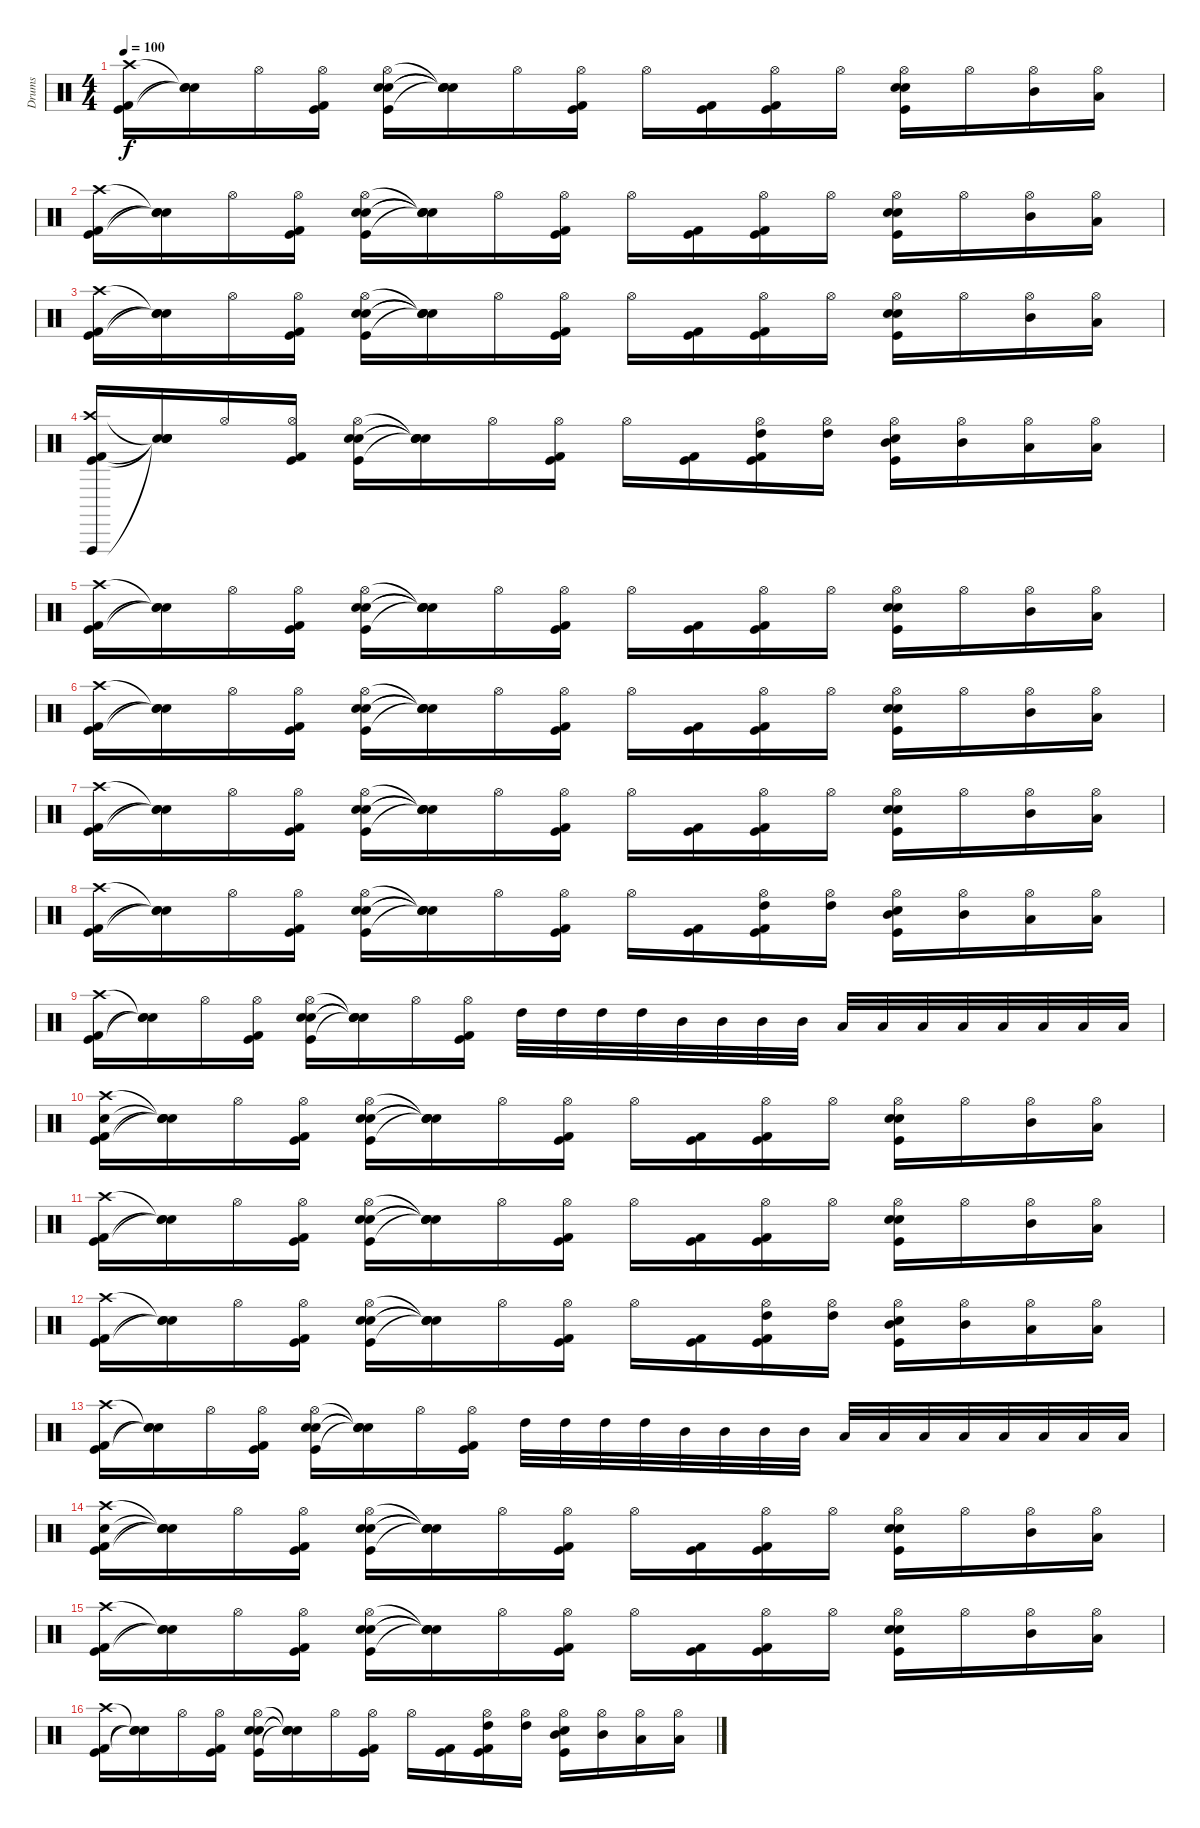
\track ("Drums" "Drums") {instrument percussion}
\staff {score}
\articulation defaults
\ts (4 4)
\tempo 100
\clef neutral
\ks c
("Kick (hit) 2" "Kick (hit)" "Crash high (hit)").16{dy f} ("Snare (hit)"{t} "Snare (hit)"{t} "Snare (hit)"{t}).16 "Hi-Hat (open)".16 ("Kick (hit)" "Kick (hit) 2" "Hi-Hat (open)").16 ("Snare (hit) 2" "Kick (hit)" "Electric Snare (hit)" "Hi-Hat (open)").16 ("Snare (hit)"{t} "Snare (hit)"{t} "Snare (hit)"{t} "Snare (hit)"{t}).16 "Hi-Hat (open)".16 ("Kick (hit)" "Kick (hit) 2" "Hi-Hat (open)").16 "Hi-Hat (open)".16 ("Kick (hit)" "Kick (hit) 2").16 ("Kick (hit)" "Kick (hit) 2" "Hi-Hat (open)").16 "Hi-Hat (open)".16 ("Snare (hit) 2" "Kick (hit)" "Electric Snare (hit)" "Hi-Hat (open)").16 "Hi-Hat (open)".16 ("Mid Tom (hit)" "Hi-Hat (open)").16 ("Low Tom (hit)" "Hi-Hat (open)").16 |
("Kick (hit) 2" "Kick (hit)" "Crash high (hit)").16 ("Snare (hit)"{t} "Snare (hit)"{t} "Snare (hit)"{t}).16 "Hi-Hat (open)".16 ("Kick (hit)" "Kick (hit) 2" "Hi-Hat (open)").16 ("Snare (hit) 2" "Kick (hit)" "Electric Snare (hit)" "Hi-Hat (open)").16 ("Snare (hit)"{t} "Snare (hit)"{t} "Snare (hit)"{t} "Snare (hit)"{t}).16 "Hi-Hat (open)".16 ("Kick (hit)" "Kick (hit) 2" "Hi-Hat (open)").16 "Hi-Hat (open)".16 ("Kick (hit)" "Kick (hit) 2").16 ("Kick (hit)" "Kick (hit) 2" "Hi-Hat (open)").16 "Hi-Hat (open)".16 ("Snare (hit) 2" "Kick (hit)" "Electric Snare (hit)" "Hi-Hat (open)").16 "Hi-Hat (open)".16 ("Mid Tom (hit)" "Hi-Hat (open)").16 ("Low Tom (hit)" "Hi-Hat (open)").16 |
("Kick (hit) 2" "Kick (hit)" "Crash high (hit)").16 ("Snare (hit)"{t} "Snare (hit)"{t} "Snare (hit)"{t}).16 "Hi-Hat (open)".16 ("Kick (hit)" "Kick (hit) 2" "Hi-Hat (open)").16 ("Snare (hit) 2" "Kick (hit)" "Electric Snare (hit)" "Hi-Hat (open)").16 ("Snare (hit)"{t} "Snare (hit)"{t} "Snare (hit)"{t} "Snare (hit)"{t}).16 "Hi-Hat (open)".16 ("Kick (hit)" "Kick (hit) 2" "Hi-Hat (open)").16 "Hi-Hat (open)".16 ("Kick (hit)" "Kick (hit) 2").16 ("Kick (hit)" "Kick (hit) 2" "Hi-Hat (open)").16 "Hi-Hat (open)".16 ("Snare (hit) 2" "Kick (hit)" "Electric Snare (hit)" "Hi-Hat (open)").16 "Hi-Hat (open)".16 ("Mid Tom (hit)" "Hi-Hat (open)").16 ("Low Tom (hit)" "Hi-Hat (open)").16 |
("Kick (hit) 2" "Kick (hit)" "Vibraslap (hit)" "Crash high (hit)").16 ("Snare (hit)"{t} "Snare (hit)"{t} "Snare (hit)"{t} "Snare (hit)"{t}).16 "Hi-Hat (open)".16 ("Kick (hit)" "Kick (hit) 2" "Hi-Hat (open)").16 ("Snare (hit) 2" "Kick (hit)" "Electric Snare (hit)" "Hi-Hat (open)").16 ("Snare (hit)"{t} "Snare (hit)"{t} "Snare (hit)"{t} "Snare (hit)"{t}).16 "Hi-Hat (open)".16 ("Kick (hit)" "Kick (hit) 2" "Hi-Hat (open)").16 "Hi-Hat (open)".16 ("Kick (hit)" "Kick (hit) 2").16 ("High Tom (hit)" "Kick (hit)" "Kick (hit) 2" "Hi-Hat (open)").16 ("High Tom (hit)" "Hi-Hat (open)").16 ("Mid Tom (hit)" "Kick (hit)" "Electric Snare (hit)" "Hi-Hat (open)").16 ("Mid Tom (hit)" "Hi-Hat (open)").16 ("Low Tom (hit)" "Hi-Hat (open)").16 ("Low Floor Tom (hit)" "Hi-Hat (open)").16 |
("Kick (hit) 2" "Kick (hit)" "Crash high (hit)").16 ("Snare (hit)"{t} "Snare (hit)"{t} "Snare (hit)"{t}).16 "Hi-Hat (open)".16 ("Kick (hit)" "Kick (hit) 2" "Hi-Hat (open)").16 ("Snare (hit) 2" "Kick (hit)" "Electric Snare (hit)" "Hi-Hat (open)").16 ("Snare (hit)"{t} "Snare (hit)"{t} "Snare (hit)"{t} "Snare (hit)"{t}).16 "Hi-Hat (open)".16 ("Kick (hit)" "Kick (hit) 2" "Hi-Hat (open)").16 "Hi-Hat (open)".16 ("Kick (hit)" "Kick (hit) 2").16 ("Kick (hit)" "Kick (hit) 2" "Hi-Hat (open)").16 "Hi-Hat (open)".16 ("Snare (hit) 2" "Kick (hit)" "Electric Snare (hit)" "Hi-Hat (open)").16 "Hi-Hat (open)".16 ("Mid Tom (hit)" "Hi-Hat (open)").16 ("Low Tom (hit)" "Hi-Hat (open)").16 |
("Kick (hit) 2" "Kick (hit)" "Crash high (hit)").16 ("Snare (hit)"{t} "Snare (hit)"{t} "Snare (hit)"{t}).16 "Hi-Hat (open)".16 ("Kick (hit)" "Kick (hit) 2" "Hi-Hat (open)").16 ("Snare (hit) 2" "Kick (hit)" "Electric Snare (hit)" "Hi-Hat (open)").16 ("Snare (hit)"{t} "Snare (hit)"{t} "Snare (hit)"{t} "Snare (hit)"{t}).16 "Hi-Hat (open)".16 ("Kick (hit)" "Kick (hit) 2" "Hi-Hat (open)").16 "Hi-Hat (open)".16 ("Kick (hit)" "Kick (hit) 2").16 ("Kick (hit)" "Kick (hit) 2" "Hi-Hat (open)").16 "Hi-Hat (open)".16 ("Snare (hit) 2" "Kick (hit)" "Electric Snare (hit)" "Hi-Hat (open)").16 "Hi-Hat (open)".16 ("Mid Tom (hit)" "Hi-Hat (open)").16 ("Low Tom (hit)" "Hi-Hat (open)").16 |
("Kick (hit) 2" "Kick (hit)" "Crash high (hit)").16 ("Snare (hit)"{t} "Snare (hit)"{t} "Snare (hit)"{t}).16 "Hi-Hat (open)".16 ("Kick (hit)" "Kick (hit) 2" "Hi-Hat (open)").16 ("Snare (hit) 2" "Kick (hit)" "Electric Snare (hit)" "Hi-Hat (open)").16 ("Snare (hit)"{t} "Snare (hit)"{t} "Snare (hit)"{t} "Snare (hit)"{t}).16 "Hi-Hat (open)".16 ("Kick (hit)" "Kick (hit) 2" "Hi-Hat (open)").16 "Hi-Hat (open)".16 ("Kick (hit)" "Kick (hit) 2").16 ("Kick (hit)" "Kick (hit) 2" "Hi-Hat (open)").16 "Hi-Hat (open)".16 ("Snare (hit) 2" "Kick (hit)" "Electric Snare (hit)" "Hi-Hat (open)").16 "Hi-Hat (open)".16 ("Mid Tom (hit)" "Hi-Hat (open)").16 ("Low Tom (hit)" "Hi-Hat (open)").16 |
("Kick (hit) 2" "Kick (hit)" "Crash high (hit)").16 ("Snare (hit)"{t} "Snare (hit)"{t} "Snare (hit)"{t}).16 "Hi-Hat (open)".16 ("Kick (hit)" "Kick (hit) 2" "Hi-Hat (open)").16 ("Snare (hit) 2" "Kick (hit)" "Electric Snare (hit)" "Hi-Hat (open)").16 ("Snare (hit)"{t} "Snare (hit)"{t} "Snare (hit)"{t} "Snare (hit)"{t}).16 "Hi-Hat (open)".16 ("Kick (hit)" "Kick (hit) 2" "Hi-Hat (open)").16 "Hi-Hat (open)".16 ("Kick (hit)" "Kick (hit) 2").16 ("High Tom (hit)" "Kick (hit)" "Kick (hit) 2" "Hi-Hat (open)").16 ("High Tom (hit)" "Hi-Hat (open)").16 ("Mid Tom (hit)" "Kick (hit)" "Electric Snare (hit)" "Hi-Hat (open)").16 ("Mid Tom (hit)" "Hi-Hat (open)").16 ("Low Tom (hit)" "Hi-Hat (open)").16 ("Low Floor Tom (hit)" "Hi-Hat (open)").16 |
("Kick (hit) 2" "Kick (hit)" "Crash high (hit)").16 ("Snare (hit)"{t} "Snare (hit)"{t} "Snare (hit)"{t}).16 "Hi-Hat (open)".16 ("Kick (hit)" "Kick (hit) 2" "Hi-Hat (open)").16 ("Snare (hit) 2" "Kick (hit)" "Electric Snare (hit)" "Hi-Hat (open)").16 ("Snare (hit)"{t} "Snare (hit)"{t} "Snare (hit)"{t} "Snare (hit)"{t}).16 "Hi-Hat (open)".16 ("Kick (hit)" "Kick (hit) 2" "Hi-Hat (open)").16 "High Tom (hit)".32 "High Tom (hit)".32 "High Tom (hit)".32 "High Tom (hit)".32 "Mid Tom (hit)".32 "Mid Tom (hit)".32 "Mid Tom (hit)".32 "Mid Tom (hit)".32 "Low Tom (hit)".32 "Low Tom (hit)".32 "Low Tom (hit)".32 "Low Tom (hit)".32 "Low Floor Tom (hit)".32 "Low Floor Tom (hit)".32 "Low Floor Tom (hit)".32 "Low Floor Tom (hit)".32 |
("Kick (hit) 2" "Kick (hit)" "Snare (hit) 2" "Crash high (hit)").16 ("Snare (hit)"{t} "Snare (hit)"{t} "Snare (hit)"{t} "Snare (hit)"{t}).16 "Hi-Hat (open)".16 ("Kick (hit)" "Kick (hit) 2" "Hi-Hat (open)").16 ("Snare (hit) 2" "Kick (hit)" "Electric Snare (hit)" "Hi-Hat (open)").16 ("Snare (hit)"{t} "Snare (hit)"{t} "Snare (hit)"{t} "Snare (hit)"{t}).16 "Hi-Hat (open)".16 ("Kick (hit)" "Kick (hit) 2" "Hi-Hat (open)").16 "Hi-Hat (open)".16 ("Kick (hit)" "Kick (hit) 2").16 ("Kick (hit)" "Kick (hit) 2" "Hi-Hat (open)").16 "Hi-Hat (open)".16 ("Snare (hit) 2" "Kick (hit)" "Electric Snare (hit)" "Hi-Hat (open)").16 "Hi-Hat (open)".16 ("Mid Tom (hit)" "Hi-Hat (open)").16 ("Low Tom (hit)" "Hi-Hat (open)").16 |
("Kick (hit) 2" "Kick (hit)" "Crash high (hit)").16 ("Snare (hit)"{t} "Snare (hit)"{t} "Snare (hit)"{t}).16 "Hi-Hat (open)".16 ("Kick (hit)" "Kick (hit) 2" "Hi-Hat (open)").16 ("Snare (hit) 2" "Kick (hit)" "Electric Snare (hit)" "Hi-Hat (open)").16 ("Snare (hit)"{t} "Snare (hit)"{t} "Snare (hit)"{t} "Snare (hit)"{t}).16 "Hi-Hat (open)".16 ("Kick (hit)" "Kick (hit) 2" "Hi-Hat (open)").16 "Hi-Hat (open)".16 ("Kick (hit)" "Kick (hit) 2").16 ("Kick (hit)" "Kick (hit) 2" "Hi-Hat (open)").16 "Hi-Hat (open)".16 ("Snare (hit) 2" "Kick (hit)" "Electric Snare (hit)" "Hi-Hat (open)").16 "Hi-Hat (open)".16 ("Mid Tom (hit)" "Hi-Hat (open)").16 ("Low Tom (hit)" "Hi-Hat (open)").16 |
("Kick (hit) 2" "Kick (hit)" "Crash high (hit)").16 ("Snare (hit)"{t} "Snare (hit)"{t} "Snare (hit)"{t}).16 "Hi-Hat (open)".16 ("Kick (hit)" "Kick (hit) 2" "Hi-Hat (open)").16 ("Snare (hit) 2" "Kick (hit)" "Electric Snare (hit)" "Hi-Hat (open)").16 ("Snare (hit)"{t} "Snare (hit)"{t} "Snare (hit)"{t} "Snare (hit)"{t}).16 "Hi-Hat (open)".16 ("Kick (hit)" "Kick (hit) 2" "Hi-Hat (open)").16 "Hi-Hat (open)".16 ("Kick (hit)" "Kick (hit) 2").16 ("High Tom (hit)" "Kick (hit)" "Kick (hit) 2" "Hi-Hat (open)").16 ("High Tom (hit)" "Hi-Hat (open)").16 ("Mid Tom (hit)" "Kick (hit)" "Electric Snare (hit)" "Hi-Hat (open)").16 ("Mid Tom (hit)" "Hi-Hat (open)").16 ("Low Tom (hit)" "Hi-Hat (open)").16 ("Low Floor Tom (hit)" "Hi-Hat (open)").16 |
("Kick (hit) 2" "Kick (hit)" "Crash high (hit)").16 ("Snare (hit)"{t} "Snare (hit)"{t} "Snare (hit)"{t}).16 "Hi-Hat (open)".16 ("Kick (hit)" "Kick (hit) 2" "Hi-Hat (open)").16 ("Snare (hit) 2" "Kick (hit)" "Electric Snare (hit)" "Hi-Hat (open)").16 ("Snare (hit)"{t} "Snare (hit)"{t} "Snare (hit)"{t} "Snare (hit)"{t}).16 "Hi-Hat (open)".16 ("Kick (hit)" "Kick (hit) 2" "Hi-Hat (open)").16 "High Tom (hit)".32 "High Tom (hit)".32 "High Tom (hit)".32 "High Tom (hit)".32 "Mid Tom (hit)".32 "Mid Tom (hit)".32 "Mid Tom (hit)".32 "Mid Tom (hit)".32 "Low Tom (hit)".32 "Low Tom (hit)".32 "Low Tom (hit)".32 "Low Tom (hit)".32 "Low Floor Tom (hit)".32 "Low Floor Tom (hit)".32 "Low Floor Tom (hit)".32 "Low Floor Tom (hit)".32 |
("Kick (hit) 2" "Kick (hit)" "Snare (hit) 2" "Crash high (hit)").16 ("Snare (hit)"{t} "Snare (hit)"{t} "Snare (hit)"{t} "Snare (hit)"{t}).16 "Hi-Hat (open)".16 ("Kick (hit)" "Kick (hit) 2" "Hi-Hat (open)").16 ("Snare (hit) 2" "Kick (hit)" "Electric Snare (hit)" "Hi-Hat (open)").16 ("Snare (hit)"{t} "Snare (hit)"{t} "Snare (hit)"{t} "Snare (hit)"{t}).16 "Hi-Hat (open)".16 ("Kick (hit)" "Kick (hit) 2" "Hi-Hat (open)").16 "Hi-Hat (open)".16 ("Kick (hit)" "Kick (hit) 2").16 ("Kick (hit)" "Kick (hit) 2" "Hi-Hat (open)").16 "Hi-Hat (open)".16 ("Snare (hit) 2" "Kick (hit)" "Electric Snare (hit)" "Hi-Hat (open)").16 "Hi-Hat (open)".16 ("Mid Tom (hit)" "Hi-Hat (open)").16 ("Low Tom (hit)" "Hi-Hat (open)").16 |
("Kick (hit) 2" "Kick (hit)" "Crash high (hit)").16 ("Snare (hit)"{t} "Snare (hit)"{t} "Snare (hit)"{t}).16 "Hi-Hat (open)".16 ("Kick (hit)" "Kick (hit) 2" "Hi-Hat (open)").16 ("Snare (hit) 2" "Kick (hit)" "Electric Snare (hit)" "Hi-Hat (open)").16 ("Snare (hit)"{t} "Snare (hit)"{t} "Snare (hit)"{t} "Snare (hit)"{t}).16 "Hi-Hat (open)".16 ("Kick (hit)" "Kick (hit) 2" "Hi-Hat (open)").16 "Hi-Hat (open)".16 ("Kick (hit)" "Kick (hit) 2").16 ("Kick (hit)" "Kick (hit) 2" "Hi-Hat (open)").16 "Hi-Hat (open)".16 ("Snare (hit) 2" "Kick (hit)" "Electric Snare (hit)" "Hi-Hat (open)").16 "Hi-Hat (open)".16 ("Mid Tom (hit)" "Hi-Hat (open)").16 ("Low Tom (hit)" "Hi-Hat (open)").16 |
("Kick (hit) 2" "Kick (hit)" "Crash high (hit)").16 ("Snare (hit)"{t} "Snare (hit)"{t} "Snare (hit)"{t}).16 "Hi-Hat (open)".16 ("Kick (hit)" "Kick (hit) 2" "Hi-Hat (open)").16 ("Snare (hit) 2" "Kick (hit)" "Electric Snare (hit)" "Hi-Hat (open)").16 ("Snare (hit)"{t} "Snare (hit)"{t} "Snare (hit)"{t} "Snare (hit)"{t}).16 "Hi-Hat (open)".16 ("Kick (hit)" "Kick (hit) 2" "Hi-Hat (open)").16 "Hi-Hat (open)".16 ("Kick (hit)" "Kick (hit) 2").16 ("High Tom (hit)" "Kick (hit)" "Kick (hit) 2" "Hi-Hat (open)").16 ("High Tom (hit)" "Hi-Hat (open)").16 ("Mid Tom (hit)" "Kick (hit)" "Electric Snare (hit)" "Hi-Hat (open)").16 ("Mid Tom (hit)" "Hi-Hat (open)").16 ("Low Tom (hit)" "Hi-Hat (open)").16 ("Low Floor Tom (hit)" "Hi-Hat (open)").16
